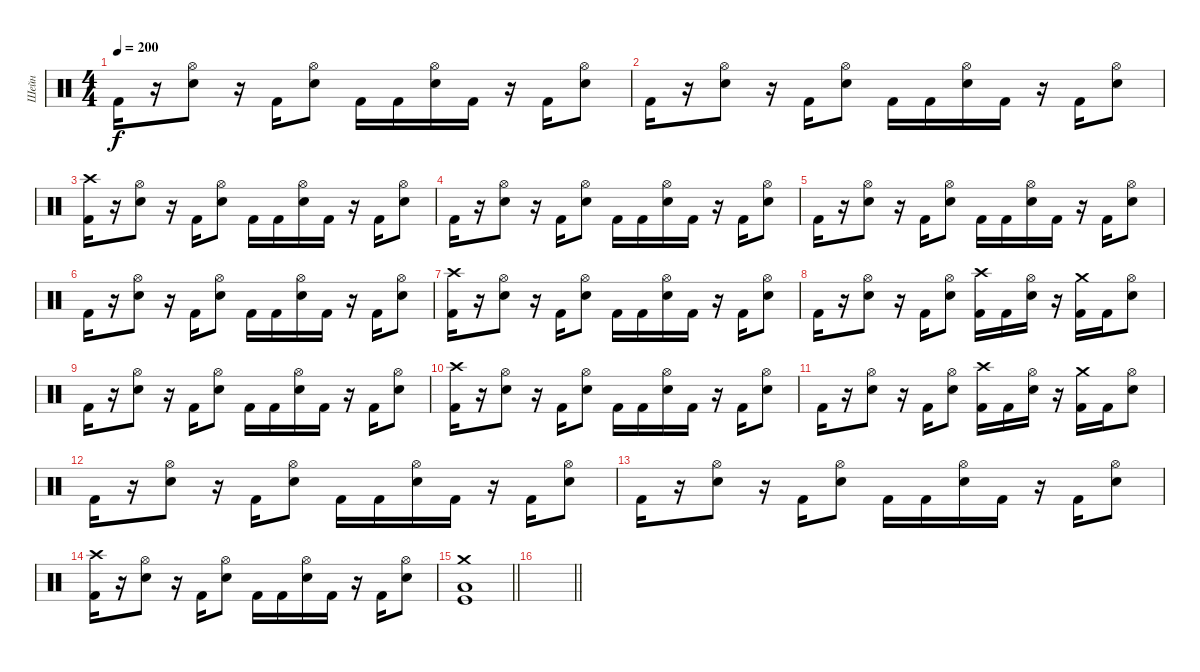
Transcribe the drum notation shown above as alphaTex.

\track ("Шейн" "Шейн") {instrument percussion}
\staff {score}
\articulation defaults
\ts (4 4)
\tempo 200
\clef neutral
\ks c "Kick (hit) 2".16{dy f}
r.16 ("Electric Snare (hit)" "Hi-Hat (open)").8 r.16 "Kick (hit) 2".16 ("Electric Snare (hit)" "Hi-Hat (open)").8 "Kick (hit) 2".16 "Kick (hit) 2".16 ("Electric Snare (hit)" "Hi-Hat (open)").16 "Kick (hit) 2".16 r.16 "Kick (hit) 2".16 ("Electric Snare (hit)" "Hi-Hat (open)").8 |
"Kick (hit) 2".16 r.16 ("Electric Snare (hit)" "Hi-Hat (open)").8 r.16 "Kick (hit) 2".16 ("Electric Snare (hit)" "Hi-Hat (open)").8 "Kick (hit) 2".16 "Kick (hit) 2".16 ("Electric Snare (hit)" "Hi-Hat (open)").16 "Kick (hit) 2".16 r.16 "Kick (hit) 2".16 ("Electric Snare (hit)" "Hi-Hat (open)").8 |
("Kick (hit) 2" "Crash high (hit)").16 r.16 ("Electric Snare (hit)" "Hi-Hat (open)").8 r.16 "Kick (hit) 2".16 ("Electric Snare (hit)" "Hi-Hat (open)").8 "Kick (hit) 2".16 "Kick (hit) 2".16 ("Electric Snare (hit)" "Hi-Hat (open)").16 "Kick (hit) 2".16 r.16 "Kick (hit) 2".16 ("Electric Snare (hit)" "Hi-Hat (open)").8 |
"Kick (hit) 2".16 r.16 ("Electric Snare (hit)" "Hi-Hat (open)").8 r.16 "Kick (hit) 2".16 ("Electric Snare (hit)" "Hi-Hat (open)").8 "Kick (hit) 2".16 "Kick (hit) 2".16 ("Electric Snare (hit)" "Hi-Hat (open)").16 "Kick (hit) 2".16 r.16 "Kick (hit) 2".16 ("Electric Snare (hit)" "Hi-Hat (open)").8 |
"Kick (hit) 2".16 r.16 ("Electric Snare (hit)" "Hi-Hat (open)").8 r.16 "Kick (hit) 2".16 ("Electric Snare (hit)" "Hi-Hat (open)").8 "Kick (hit) 2".16 "Kick (hit) 2".16 ("Electric Snare (hit)" "Hi-Hat (open)").16 "Kick (hit) 2".16 r.16 "Kick (hit) 2".16 ("Electric Snare (hit)" "Hi-Hat (open)").8 |
"Kick (hit) 2".16 r.16 ("Electric Snare (hit)" "Hi-Hat (open)").8 r.16 "Kick (hit) 2".16 ("Electric Snare (hit)" "Hi-Hat (open)").8 "Kick (hit) 2".16 "Kick (hit) 2".16 ("Electric Snare (hit)" "Hi-Hat (open)").16 "Kick (hit) 2".16 r.16 "Kick (hit) 2".16 ("Electric Snare (hit)" "Hi-Hat (open)").8 |
("Kick (hit) 2" "Crash high (hit)").16 r.16 ("Electric Snare (hit)" "Hi-Hat (open)").8 r.16 "Kick (hit) 2".16 ("Electric Snare (hit)" "Hi-Hat (open)").8 "Kick (hit) 2".16 "Kick (hit) 2".16 ("Electric Snare (hit)" "Hi-Hat (open)").16 "Kick (hit) 2".16 r.16 "Kick (hit) 2".16 ("Electric Snare (hit)" "Hi-Hat (open)").8 |
"Kick (hit) 2".16 r.16 ("Electric Snare (hit)" "Hi-Hat (open)").8 r.16 "Kick (hit) 2".16 ("Electric Snare (hit)" "Hi-Hat (open)").8 ("Kick (hit) 2" "Crash high (hit)").16 "Kick (hit) 2".16 ("Electric Snare (hit)" "Hi-Hat (open)").16 r.16 ("Kick (hit) 2" "Crash medium (hit)").16 "Kick (hit) 2".16 ("Electric Snare (hit)" "Hi-Hat (open)").8 |
"Kick (hit) 2".16 r.16 ("Electric Snare (hit)" "Hi-Hat (open)").8 r.16 "Kick (hit) 2".16 ("Electric Snare (hit)" "Hi-Hat (open)").8 "Kick (hit) 2".16 "Kick (hit) 2".16 ("Electric Snare (hit)" "Hi-Hat (open)").16 "Kick (hit) 2".16 r.16 "Kick (hit) 2".16 ("Electric Snare (hit)" "Hi-Hat (open)").8 |
("Kick (hit) 2" "Crash high (hit)").16 r.16 ("Electric Snare (hit)" "Hi-Hat (open)").8 r.16 "Kick (hit) 2".16 ("Electric Snare (hit)" "Hi-Hat (open)").8 "Kick (hit) 2".16 "Kick (hit) 2".16 ("Electric Snare (hit)" "Hi-Hat (open)").16 "Kick (hit) 2".16 r.16 "Kick (hit) 2".16 ("Electric Snare (hit)" "Hi-Hat (open)").8 |
"Kick (hit) 2".16 r.16 ("Electric Snare (hit)" "Hi-Hat (open)").8 r.16 "Kick (hit) 2".16 ("Electric Snare (hit)" "Hi-Hat (open)").8 ("Kick (hit) 2" "Crash high (hit)").16 "Kick (hit) 2".16 ("Electric Snare (hit)" "Hi-Hat (open)").16 r.16 ("Kick (hit) 2" "Crash medium (hit)").16 "Kick (hit) 2".16 ("Electric Snare (hit)" "Hi-Hat (open)").8 |
"Kick (hit) 2".16 r.16 ("Electric Snare (hit)" "Hi-Hat (open)").8 r.16 "Kick (hit) 2".16 ("Electric Snare (hit)" "Hi-Hat (open)").8 "Kick (hit) 2".16 "Kick (hit) 2".16 ("Electric Snare (hit)" "Hi-Hat (open)").16 "Kick (hit) 2".16 r.16 "Kick (hit) 2".16 ("Electric Snare (hit)" "Hi-Hat (open)").8 |
"Kick (hit) 2".16 r.16 ("Electric Snare (hit)" "Hi-Hat (open)").8 r.16 "Kick (hit) 2".16 ("Electric Snare (hit)" "Hi-Hat (open)").8 "Kick (hit) 2".16 "Kick (hit) 2".16 ("Electric Snare (hit)" "Hi-Hat (open)").16 "Kick (hit) 2".16 r.16 "Kick (hit) 2".16 ("Electric Snare (hit)" "Hi-Hat (open)").8 |
("Kick (hit) 2" "Crash high (hit)").16 r.16 ("Electric Snare (hit)" "Hi-Hat (open)").8 r.16 "Kick (hit) 2".16 ("Electric Snare (hit)" "Hi-Hat (open)").8 "Kick (hit) 2".16 "Kick (hit) 2".16 ("Electric Snare (hit)" "Hi-Hat (open)").16 "Kick (hit) 2".16 r.16 "Kick (hit) 2".16 ("Electric Snare (hit)" "Hi-Hat (open)").8 |
\barLineRight lightlight
("Kick (hit)" "Crash medium (hit)" "Low Floor Tom (hit)").1 |
\section ("" "")
\barLineRight lightlight
